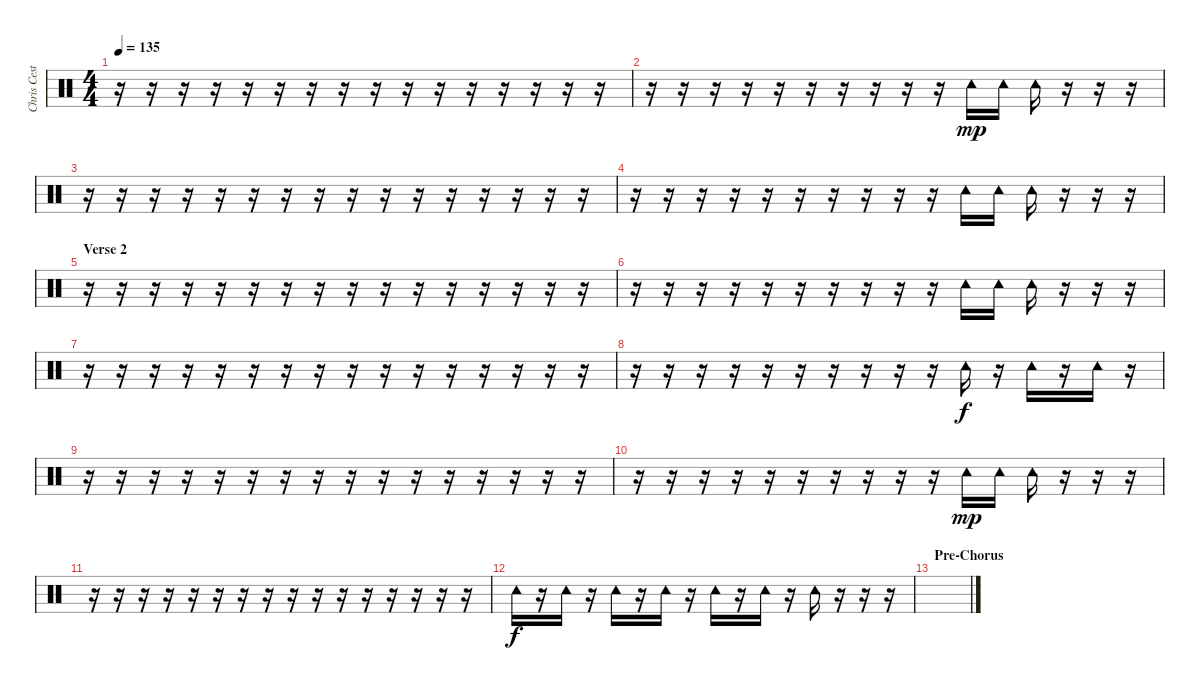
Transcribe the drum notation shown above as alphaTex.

\track ("Chris Cester - Tambourine" "Chris Cest") {instrument percussion}
\staff {score}
\articulation defaults
\ts (4 4)
\tempo 135
\clef neutral
\ks c
r.16{dy mp} r.16 r.16 r.16 r.16 r.16 r.16 r.16 r.16 r.16 r.16 r.16 r.16 r.16 r.16 r.16 |
r.16 r.16 r.16 r.16 r.16 r.16 r.16 r.16 r.16 r.16 "Tambourine (hit)".16 "Tambourine (hit)".16 "Tambourine (hit)".16 r.16 r.16 r.16 |
r.16 r.16 r.16 r.16 r.16 r.16 r.16 r.16 r.16 r.16 r.16 r.16 r.16 r.16 r.16 r.16 |
r.16 r.16 r.16 r.16 r.16 r.16 r.16 r.16 r.16 r.16 "Tambourine (hit)".16 "Tambourine (hit)".16 "Tambourine (hit)".16 r.16 r.16 r.16 |
\section ("" "Verse 2")
r.16 r.16 r.16 r.16 r.16 r.16 r.16 r.16 r.16 r.16 r.16 r.16 r.16 r.16 r.16 r.16 |
r.16 r.16 r.16 r.16 r.16 r.16 r.16 r.16 r.16 r.16 "Tambourine (hit)".16 "Tambourine (hit)".16 "Tambourine (hit)".16 r.16 r.16 r.16 |
r.16 r.16 r.16 r.16 r.16 r.16 r.16 r.16 r.16 r.16 r.16 r.16 r.16 r.16 r.16 r.16 |
r.16 r.16 r.16 r.16 r.16 r.16 r.16 r.16 r.16 r.16 "Tambourine (hit)".16{dy f} r.16 "Tambourine (hit)".16 r.16 "Tambourine (hit)".16 r.16 |
r.16 r.16 r.16 r.16 r.16 r.16 r.16 r.16 r.16 r.16 r.16 r.16 r.16 r.16 r.16 r.16 |
r.16 r.16 r.16 r.16 r.16 r.16 r.16 r.16 r.16 r.16 "Tambourine (hit)".16{dy mp} "Tambourine (hit)".16 "Tambourine (hit)".16 r.16 r.16 r.16 |
r.16 r.16 r.16 r.16 r.16 r.16 r.16 r.16 r.16 r.16 r.16 r.16 r.16 r.16 r.16 r.16 |
"Tambourine (hit)".16{dy f} r.16 "Tambourine (hit)".16 r.16 "Tambourine (hit)".16 r.16 "Tambourine (hit)".16 r.16 "Tambourine (hit)".16 r.16 "Tambourine (hit)".16 r.16 "Tambourine (hit)".16 r.16 r.16 r.16 |
\section ("" "Pre-Chorus")
